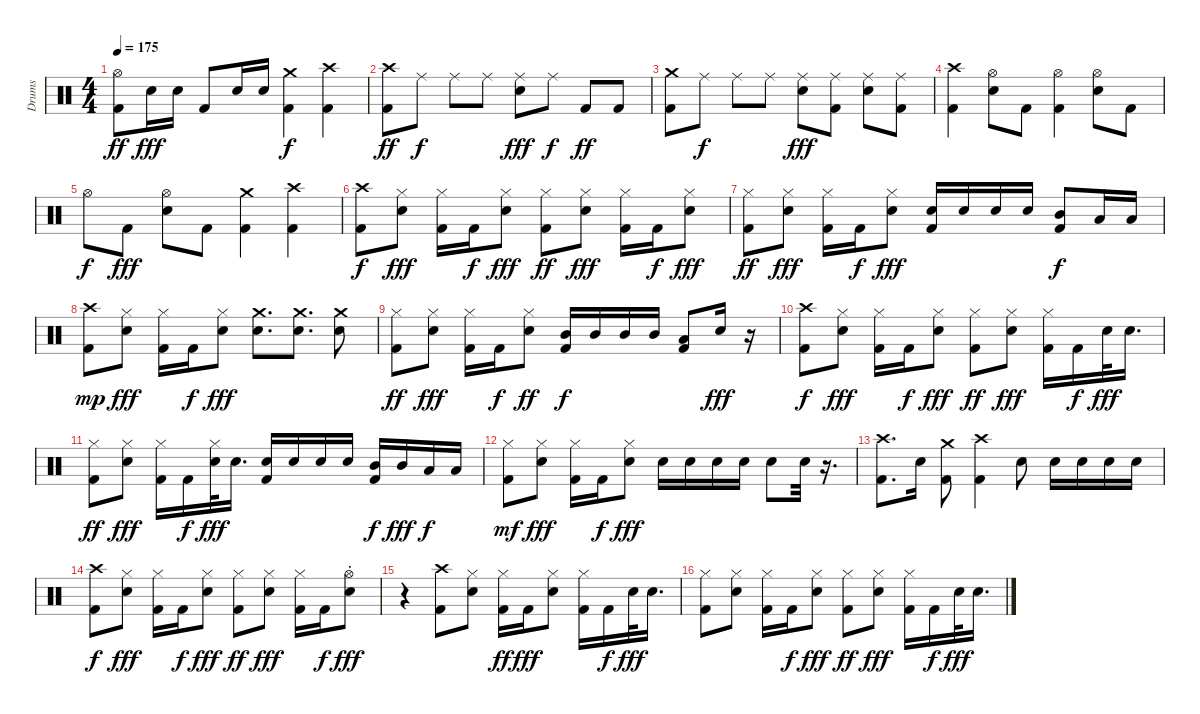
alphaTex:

\track ("Drums" "Drums") {instrument percussion}
\staff {score}
\articulation defaults
\ts (4 4)
\tempo 175
\clef neutral
\ks c
("Hi-Hat (open)" "Kick (hit) 2").8{dy ff} "Snare (hit) 2".16{dy fff} "Snare (hit) 2".16 "Kick (hit) 2".8 "Snare (hit) 2".16 "Snare (hit) 2".16 ("Crash medium (hit)" "Kick (hit) 2").4{dy f} ("Crash high (hit)" "Kick (hit) 2").4 |
("Crash high (hit)" "Kick (hit) 2").8{dy ff} "Ride (middle)".8{dy f} "Ride (middle)".8 "Ride (middle)".8 ("Ride (middle)" "Snare (hit) 2").8{dy fff} "Ride (middle)".8{dy f} "Kick (hit) 2".8{dy ff} "Kick (hit) 2".8 |
("Crash medium (hit)" "Kick (hit) 2").8 "Ride (middle)".8{dy f} "Ride (middle)".8 "Ride (middle)".8 ("Ride (middle)" "Snare (hit) 2").8{dy fff} ("Ride (middle)" "Kick (hit) 2").8 ("Ride (middle)" "Snare (hit) 2").8 ("Ride (middle)" "Kick (hit) 2").8 |
("Crash high (hit)" "Kick (hit) 2").4 ("Hi-Hat (open)" "Snare (hit) 2").8 "Kick (hit) 2".8 ("Hi-Hat (open)" "Kick (hit) 2").4 ("Hi-Hat (open)" "Snare (hit) 2").8 "Kick (hit) 2".8 |
"Hi-Hat (open)".8{dy f} "Kick (hit) 2".8{dy fff} ("Hi-Hat (open)" "Snare (hit) 2").8 "Kick (hit) 2".8 ("Crash medium (hit)" "Kick (hit) 2").4 ("Crash high (hit)" "Kick (hit) 2").4 |
("Crash high (hit)" "Kick (hit) 2").8{dy f} ("Hi-Hat (closed)" "Snare (hit) 2").8{dy fff} ("Hi-Hat (closed)" "Kick (hit) 2").16 "Kick (hit) 2".16{dy f} ("Hi-Hat (closed)" "Snare (hit) 2").8{dy fff} ("Hi-Hat (closed)" "Kick (hit) 2").8{dy ff} ("Hi-Hat (closed)" "Snare (hit) 2").8{dy fff} ("Hi-Hat (closed)" "Kick (hit) 2").16 "Kick (hit) 2".16{dy f} ("Hi-Hat (closed)" "Snare (hit) 2").8{dy fff} |
("Hi-Hat (closed)" "Kick (hit) 2").8{dy ff} ("Hi-Hat (closed)" "Snare (hit) 2").8{dy fff} ("Hi-Hat (closed)" "Kick (hit) 2").16 "Kick (hit) 2".16{dy f} ("Hi-Hat (closed)" "Snare (hit) 2").8{dy fff} ("Snare (hit) 2" "Kick (hit) 2").16 "Snare (hit) 2".16 "Snare (hit) 2".16 "Snare (hit) 2".16 ("Mid Tom (hit)" "Kick (hit) 2").8{dy f} "Low Tom (hit)".16 "Low Tom (hit)".16 |
("Crash high (hit)" "Kick (hit) 2").8{dy mp} ("Hi-Hat (closed)" "Snare (hit) 2").8{dy fff} ("Hi-Hat (closed)" "Kick (hit) 2").16 "Kick (hit) 2".16{dy f} ("Hi-Hat (closed)" "Snare (hit) 2").8{dy fff} ("Crash medium (hit)" "Snare (hit) 2").8{d} ("Crash medium (hit)" "Snare (hit) 2").8{d} ("Crash medium (hit)" "Snare (hit) 2").8 |
("Hi-Hat (closed)" "Kick (hit) 2").8{dy ff} ("Hi-Hat (closed)" "Snare (hit) 2").8{dy fff} ("Hi-Hat (closed)" "Kick (hit) 2").16 "Kick (hit) 2".16{dy f} ("Hi-Hat (closed)" "Snare (hit) 2").8{dy ff} ("Mid Tom (hit)" "Kick (hit) 2").16{dy f} "Mid Tom (hit)".16 "Mid Tom (hit)".16 "Mid Tom (hit)".16 ("Low Tom (hit)" "Kick (hit) 2").8 "Snare (hit) 2".16{dy fff} r.16 |
("Crash high (hit)" "Kick (hit) 2").8{dy f} ("Hi-Hat (closed)" "Snare (hit) 2").8{dy fff} ("Hi-Hat (closed)" "Kick (hit) 2").16 "Kick (hit) 2".16{dy f} ("Hi-Hat (closed)" "Snare (hit) 2").8{dy fff} ("Hi-Hat (closed)" "Kick (hit) 2").8{dy ff} ("Hi-Hat (closed)" "Snare (hit) 2").8{dy fff} ("Hi-Hat (closed)" "Kick (hit) 2").16 "Kick (hit) 2".16{dy f} "Snare (hit) 2".32{dy fff} "Snare (hit) 2".16{d} |
("Hi-Hat (closed)" "Kick (hit) 2").8{dy ff} ("Hi-Hat (closed)" "Snare (hit) 2").8{dy fff} ("Hi-Hat (closed)" "Kick (hit) 2").16 "Kick (hit) 2".16{dy f} ("Hi-Hat (closed)" "Snare (hit) 2").32{dy fff} "Snare (hit) 2".16{d} ("Snare (hit) 2" "Kick (hit) 2").16 "Snare (hit) 2".16 "Snare (hit) 2".16 "Snare (hit) 2".16 ("Mid Tom (hit)" "Kick (hit) 2").16{dy f} "Mid Tom (hit)".16{dy fff} "Low Tom (hit)".16{dy f} "Low Tom (hit)".16 |
("Hi-Hat (closed)" "Kick (hit) 2").8{dy mf} ("Hi-Hat (closed)" "Snare (hit) 2").8{dy fff} ("Hi-Hat (closed)" "Kick (hit) 2").16 "Kick (hit) 2".16{dy f} ("Hi-Hat (closed)" "Snare (hit) 2").8{dy fff} "Snare (hit) 2".16 "Snare (hit) 2".16 "Snare (hit) 2".16 "Snare (hit) 2".16 "Snare (hit) 2".8 "Snare (hit) 2".32 r.16{d} |
("Crash high (hit)" "Kick (hit) 2").8{d} "Snare (hit) 2".16 ("Crash medium (hit)" "Kick (hit) 2").8 ("Crash high (hit)" "Kick (hit) 2").4 "Snare (hit) 2".8 "Snare (hit) 2".16 "Snare (hit) 2".16 "Snare (hit) 2".16 "Snare (hit) 2".16 |
("Crash high (hit)" "Kick (hit) 2").8{dy f} ("Hi-Hat (closed)" "Snare (hit) 2").8{dy fff} ("Hi-Hat (closed)" "Kick (hit) 2").16 "Kick (hit) 2".16{dy f} ("Hi-Hat (closed)" "Snare (hit) 2").8{dy fff} ("Hi-Hat (closed)" "Kick (hit) 2").8{dy ff} ("Hi-Hat (closed)" "Snare (hit) 2").8{dy fff} ("Hi-Hat (closed)" "Kick (hit) 2").16 "Kick (hit) 2".16{dy f} ("Hi-Hat (open)"{st} "Snare (hit) 2").8{dy fff} |
r.4 ("Crash high (hit)" "Kick (hit) 2").8 ("Hi-Hat (closed)" "Snare (hit) 2").8 ("Hi-Hat (closed)" "Kick (hit) 2").16{dy ff} "Kick (hit) 2".16{dy fff} ("Hi-Hat (closed)" "Snare (hit) 2").8 ("Hi-Hat (closed)" "Kick (hit) 2").16 "Kick (hit) 2".16{dy f} "Snare (hit) 2".32{dy fff} "Snare (hit) 2".16{d} |
("Hi-Hat (closed)" "Kick (hit) 2").8 ("Hi-Hat (closed)" "Snare (hit) 2").8 ("Hi-Hat (closed)" "Kick (hit) 2").16 "Kick (hit) 2".16{dy f} ("Hi-Hat (closed)" "Snare (hit) 2").8{dy fff} ("Hi-Hat (closed)" "Kick (hit) 2").8{dy ff} ("Hi-Hat (closed)" "Snare (hit) 2").8{dy fff} ("Hi-Hat (closed)" "Kick (hit) 2").16 "Kick (hit) 2".16{dy f} "Snare (hit) 2".32{dy fff} "Snare (hit) 2".16{d}
